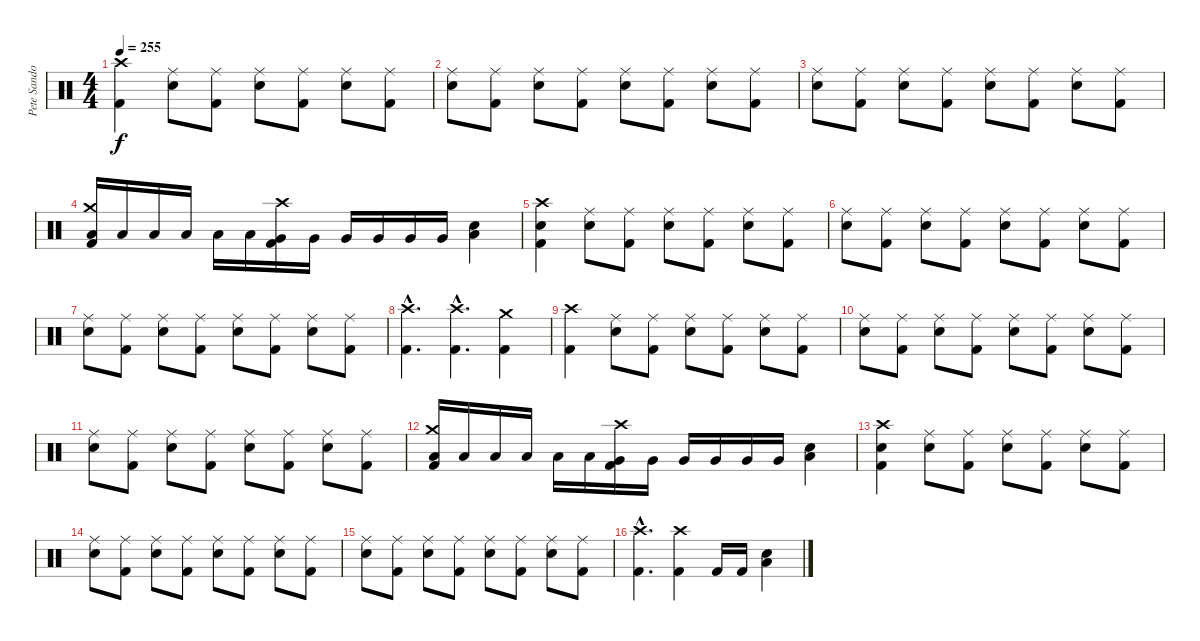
\track ("Pete Sandoval" "Pete Sando") {instrument percussion}
\staff {score}
\articulation defaults
\ts (4 4)
\tempo 255
\clef neutral
\ks c
("Crash high (hit)" "Kick (hit) 2").4{dy f} ("Ride (middle)" "Electric Snare (hit)").8 ("Ride (middle)" "Kick (hit) 2").8 ("Ride (middle)" "Electric Snare (hit)").8 ("Ride (middle)" "Kick (hit) 2").8 ("Ride (middle)" "Electric Snare (hit)").8 ("Ride (middle)" "Kick (hit) 2").8 |
("Ride (middle)" "Electric Snare (hit)").8 ("Ride (middle)" "Kick (hit) 2").8 ("Ride (middle)" "Electric Snare (hit)").8 ("Ride (middle)" "Kick (hit) 2").8 ("Ride (middle)" "Electric Snare (hit)").8 ("Ride (middle)" "Kick (hit) 2").8 ("Ride (middle)" "Electric Snare (hit)").8 ("Ride (middle)" "Kick (hit) 2").8 |
("Ride (middle)" "Electric Snare (hit)").8 ("Ride (middle)" "Kick (hit) 2").8 ("Ride (middle)" "Electric Snare (hit)").8 ("Ride (middle)" "Kick (hit) 2").8 ("Ride (middle)" "Electric Snare (hit)").8 ("Ride (middle)" "Kick (hit) 2").8 ("Ride (middle)" "Electric Snare (hit)").8 ("Ride (middle)" "Kick (hit) 2").8 |
("Crash medium (hit)" "Kick (hit) 2" "Low Tom (hit)").16 "Low Tom (hit)".16 "Low Tom (hit)".16 "Low Tom (hit)".16 "Low Tom (hit)".16 "Low Tom (hit)".16 ("Crash high (hit)" "Kick (hit) 2" "Very Low Tom (hit)").16 "Very Low Tom (hit)".16 "Very Low Tom (hit)".16 "Very Low Tom (hit)".16 "Very Low Tom (hit)".16 "Very Low Tom (hit)".16 ("Low Tom (hit)" "Electric Snare (hit)").4 |
("Crash high (hit)" "Electric Snare (hit)" "Kick (hit) 2").4 ("Ride (middle)" "Electric Snare (hit)").8 ("Ride (middle)" "Kick (hit) 2").8 ("Ride (middle)" "Electric Snare (hit)").8 ("Ride (middle)" "Kick (hit) 2").8 ("Ride (middle)" "Electric Snare (hit)").8 ("Ride (middle)" "Kick (hit) 2").8 |
("Ride (middle)" "Electric Snare (hit)").8 ("Ride (middle)" "Kick (hit) 2").8 ("Ride (middle)" "Electric Snare (hit)").8 ("Ride (middle)" "Kick (hit) 2").8 ("Ride (middle)" "Electric Snare (hit)").8 ("Ride (middle)" "Kick (hit) 2").8 ("Ride (middle)" "Electric Snare (hit)").8 ("Ride (middle)" "Kick (hit) 2").8 |
("Ride (middle)" "Electric Snare (hit)").8 ("Ride (middle)" "Kick (hit) 2").8 ("Ride (middle)" "Electric Snare (hit)").8 ("Ride (middle)" "Kick (hit) 2").8 ("Ride (middle)" "Electric Snare (hit)").8 ("Ride (middle)" "Kick (hit) 2").8 ("Ride (middle)" "Electric Snare (hit)").8 ("Ride (middle)" "Kick (hit) 2").8 |
("Crash high (hit)"{hac} "Kick (hit) 2"{hac}).4{d} ("Crash high (hit)"{hac} "Kick (hit) 2"{hac}).4{d} ("Crash medium (hit)" "Kick (hit) 2").4 |
("Crash high (hit)" "Kick (hit) 2").4 ("Ride (middle)" "Electric Snare (hit)").8 ("Ride (middle)" "Kick (hit) 2").8 ("Ride (middle)" "Electric Snare (hit)").8 ("Ride (middle)" "Kick (hit) 2").8 ("Ride (middle)" "Electric Snare (hit)").8 ("Ride (middle)" "Kick (hit) 2").8 |
("Ride (middle)" "Electric Snare (hit)").8 ("Ride (middle)" "Kick (hit) 2").8 ("Ride (middle)" "Electric Snare (hit)").8 ("Ride (middle)" "Kick (hit) 2").8 ("Ride (middle)" "Electric Snare (hit)").8 ("Ride (middle)" "Kick (hit) 2").8 ("Ride (middle)" "Electric Snare (hit)").8 ("Ride (middle)" "Kick (hit) 2").8 |
("Ride (middle)" "Electric Snare (hit)").8 ("Ride (middle)" "Kick (hit) 2").8 ("Ride (middle)" "Electric Snare (hit)").8 ("Ride (middle)" "Kick (hit) 2").8 ("Ride (middle)" "Electric Snare (hit)").8 ("Ride (middle)" "Kick (hit) 2").8 ("Ride (middle)" "Electric Snare (hit)").8 ("Ride (middle)" "Kick (hit) 2").8 |
("Crash medium (hit)" "Kick (hit) 2" "Low Tom (hit)").16 "Low Tom (hit)".16 "Low Tom (hit)".16 "Low Tom (hit)".16 "Low Tom (hit)".16 "Low Tom (hit)".16 ("Crash high (hit)" "Kick (hit) 2" "Very Low Tom (hit)").16 "Very Low Tom (hit)".16 "Very Low Tom (hit)".16 "Very Low Tom (hit)".16 "Very Low Tom (hit)".16 "Very Low Tom (hit)".16 ("Low Tom (hit)" "Electric Snare (hit)").4 |
("Crash high (hit)" "Electric Snare (hit)" "Kick (hit) 2").4 ("Ride (middle)" "Electric Snare (hit)").8 ("Ride (middle)" "Kick (hit) 2").8 ("Ride (middle)" "Electric Snare (hit)").8 ("Ride (middle)" "Kick (hit) 2").8 ("Ride (middle)" "Electric Snare (hit)").8 ("Ride (middle)" "Kick (hit) 2").8 |
("Ride (middle)" "Electric Snare (hit)").8 ("Ride (middle)" "Kick (hit) 2").8 ("Ride (middle)" "Electric Snare (hit)").8 ("Ride (middle)" "Kick (hit) 2").8 ("Ride (middle)" "Electric Snare (hit)").8 ("Ride (middle)" "Kick (hit) 2").8 ("Ride (middle)" "Electric Snare (hit)").8 ("Ride (middle)" "Kick (hit) 2").8 |
("Ride (middle)" "Electric Snare (hit)").8 ("Ride (middle)" "Kick (hit) 2").8 ("Ride (middle)" "Electric Snare (hit)").8 ("Ride (middle)" "Kick (hit) 2").8 ("Ride (middle)" "Electric Snare (hit)").8 ("Ride (middle)" "Kick (hit) 2").8 ("Ride (middle)" "Electric Snare (hit)").8 ("Ride (middle)" "Kick (hit) 2").8 |
("Crash high (hit)"{hac} "Kick (hit) 2"{hac}).4{d} ("Crash high (hit)" "Kick (hit) 2").4 "Kick (hit) 2".16 "Kick (hit) 2".16 ("Low Tom (hit)" "Electric Snare (hit)").4
